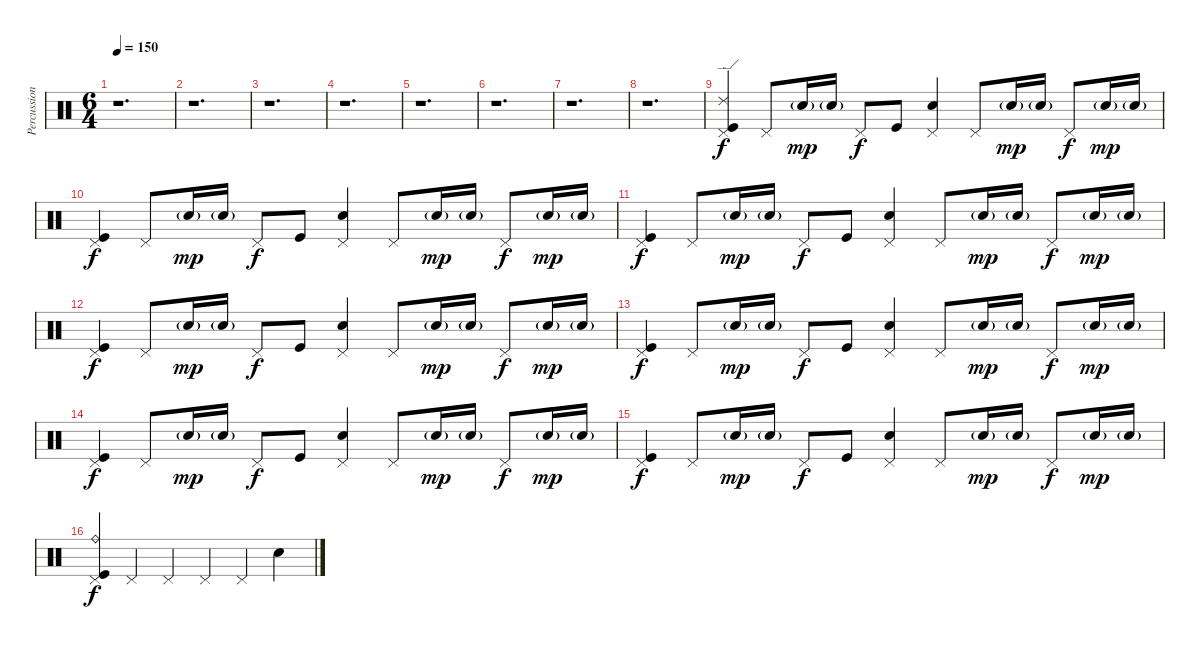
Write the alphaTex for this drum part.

\track ("Percussion" "Percussion") {instrument percussion}
\staff {score}
\articulation defaults
\ts (6 4)
\tempo 150
\clef neutral
\ks c
r.1{d dy f} |
r.1{d} |
r.1{d} |
r.1{d} |
r.1{d} |
r.1{d} |
r.1{d} |
r.1{d} |
("Ride (edge) 2" "Pedal Hi-Hat (hit)" "Kick (hit)").4 "Pedal Hi-Hat (hit)".8 "Snare (hit) 2"{g}.16{dy mp} "Snare (hit) 2"{g}.16 "Pedal Hi-Hat (hit)".8{dy f} "Kick (hit)".8 ("Pedal Hi-Hat (hit)" "Snare (hit) 2").4 "Pedal Hi-Hat (hit)".8 "Snare (hit) 2"{g}.16{dy mp} "Snare (hit) 2"{g}.16 "Pedal Hi-Hat (hit)".8{dy f} "Snare (hit) 2"{g}.16{dy mp} "Snare (hit) 2"{g}.16 |
("Pedal Hi-Hat (hit)" "Kick (hit)").4{dy f} "Pedal Hi-Hat (hit)".8 "Snare (hit) 2"{g}.16{dy mp} "Snare (hit) 2"{g}.16 "Pedal Hi-Hat (hit)".8{dy f} "Kick (hit)".8 ("Pedal Hi-Hat (hit)" "Snare (hit) 2").4 "Pedal Hi-Hat (hit)".8 "Snare (hit) 2"{g}.16{dy mp} "Snare (hit) 2"{g}.16 "Pedal Hi-Hat (hit)".8{dy f} "Snare (hit) 2"{g}.16{dy mp} "Snare (hit) 2"{g}.16 |
("Pedal Hi-Hat (hit)" "Kick (hit)").4{dy f} "Pedal Hi-Hat (hit)".8 "Snare (hit) 2"{g}.16{dy mp} "Snare (hit) 2"{g}.16 "Pedal Hi-Hat (hit)".8{dy f} "Kick (hit)".8 ("Pedal Hi-Hat (hit)" "Snare (hit) 2").4 "Pedal Hi-Hat (hit)".8 "Snare (hit) 2"{g}.16{dy mp} "Snare (hit) 2"{g}.16 "Pedal Hi-Hat (hit)".8{dy f} "Snare (hit) 2"{g}.16{dy mp} "Snare (hit) 2"{g}.16 |
("Pedal Hi-Hat (hit)" "Kick (hit)").4{dy f} "Pedal Hi-Hat (hit)".8 "Snare (hit) 2"{g}.16{dy mp} "Snare (hit) 2"{g}.16 "Pedal Hi-Hat (hit)".8{dy f} "Kick (hit)".8 ("Pedal Hi-Hat (hit)" "Snare (hit) 2").4 "Pedal Hi-Hat (hit)".8 "Snare (hit) 2"{g}.16{dy mp} "Snare (hit) 2"{g}.16 "Pedal Hi-Hat (hit)".8{dy f} "Snare (hit) 2"{g}.16{dy mp} "Snare (hit) 2"{g}.16 |
("Pedal Hi-Hat (hit)" "Kick (hit)").4{dy f} "Pedal Hi-Hat (hit)".8 "Snare (hit) 2"{g}.16{dy mp} "Snare (hit) 2"{g}.16 "Pedal Hi-Hat (hit)".8{dy f} "Kick (hit)".8 ("Pedal Hi-Hat (hit)" "Snare (hit) 2").4 "Pedal Hi-Hat (hit)".8 "Snare (hit) 2"{g}.16{dy mp} "Snare (hit) 2"{g}.16 "Pedal Hi-Hat (hit)".8{dy f} "Snare (hit) 2"{g}.16{dy mp} "Snare (hit) 2"{g}.16 |
("Pedal Hi-Hat (hit)" "Kick (hit)").4{dy f} "Pedal Hi-Hat (hit)".8 "Snare (hit) 2"{g}.16{dy mp} "Snare (hit) 2"{g}.16 "Pedal Hi-Hat (hit)".8{dy f} "Kick (hit)".8 ("Pedal Hi-Hat (hit)" "Snare (hit) 2").4 "Pedal Hi-Hat (hit)".8 "Snare (hit) 2"{g}.16{dy mp} "Snare (hit) 2"{g}.16 "Pedal Hi-Hat (hit)".8{dy f} "Snare (hit) 2"{g}.16{dy mp} "Snare (hit) 2"{g}.16 |
("Pedal Hi-Hat (hit)" "Kick (hit)").4{dy f} "Pedal Hi-Hat (hit)".8 "Snare (hit) 2"{g}.16{dy mp} "Snare (hit) 2"{g}.16 "Pedal Hi-Hat (hit)".8{dy f} "Kick (hit)".8 ("Pedal Hi-Hat (hit)" "Snare (hit) 2").4 "Pedal Hi-Hat (hit)".8 "Snare (hit) 2"{g}.16{dy mp} "Snare (hit) 2"{g}.16 "Pedal Hi-Hat (hit)".8{dy f} "Snare (hit) 2"{g}.16{dy mp} "Snare (hit) 2"{g}.16 |
("Ride (bell)" "Pedal Hi-Hat (hit)" "Kick (hit)").4{dy f} "Pedal Hi-Hat (hit)".4 "Pedal Hi-Hat (hit)".4 "Pedal Hi-Hat (hit)".4 "Pedal Hi-Hat (hit)".4 "Snare (hit) 2".4
